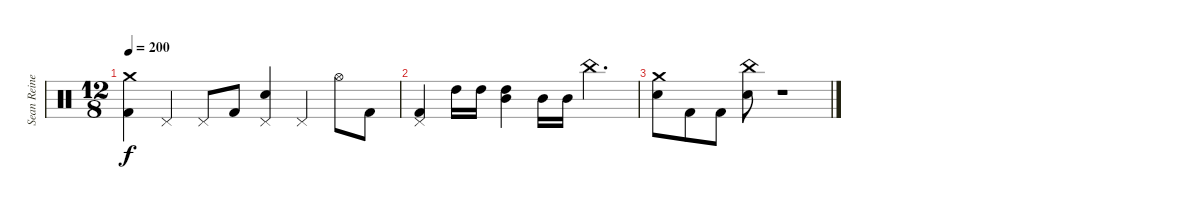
\track ("Sean Reinert" "Sean Reine") {instrument percussion}
\staff {score}
\articulation defaults
\ts (12 8)
\tempo 200
\clef neutral
\ks c
("Crash medium (hit)" "Kick (hit) 2").4{dy f} "Pedal Hi-Hat (hit)".4 "Pedal Hi-Hat (hit)".8 "Kick (hit) 2".8 ("Pedal Hi-Hat (hit)" "Snare (hit) 2").4 "Pedal Hi-Hat (hit)".4 "Hi-Hat (open)".8 "Kick (hit) 2".8 |
("Pedal Hi-Hat (hit)" "Kick (hit) 2").4 "High Tom (hit)".16 "High Tom (hit)".16 ("Mid Tom (hit)" "High Tom (hit)").4 "Mid Tom (hit)".16 "Mid Tom (hit)".16 "China (hit)".2{d} |
("Crash medium (hit)" "Snare (hit) 2").8 "Kick (hit) 2".8 "Kick (hit) 2".8 ("China (hit)" "Snare (hit) 2").8 r.1
